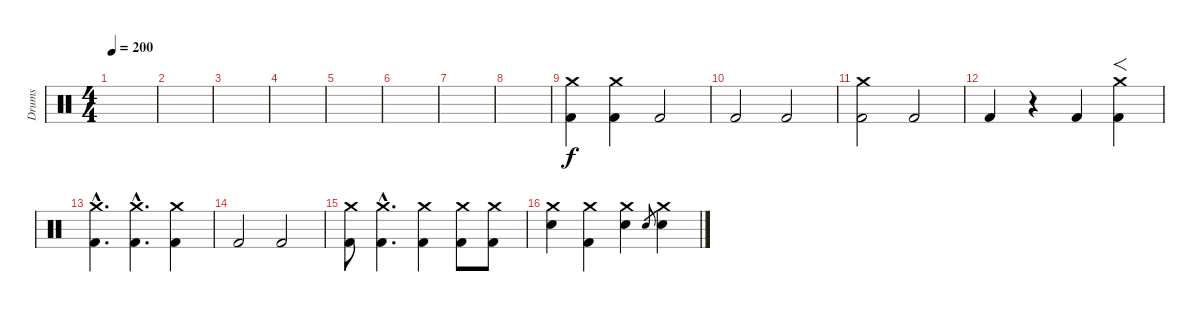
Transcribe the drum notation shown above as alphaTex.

\track ("Drums" "Drums") {instrument percussion}
\staff {score}
\articulation defaults
\ts (4 4)
\tempo 200
\clef neutral
\ks c
|
|
|
|
|
|
|
|
("Kick (hit) 2" "Crash medium (hit)").4 ("Kick (hit) 2" "Crash medium (hit)").4 "Kick (hit) 2".2 |
"Kick (hit) 2".2 "Kick (hit) 2".2 |
("Crash medium (hit)" "Kick (hit) 2").2 "Kick (hit) 2".2 |
"Kick (hit) 2".4 r.4 "Kick (hit) 2".4 ("Crash medium (hit)" "Kick (hit) 2").4{f} |
("Crash medium (hit)"{hac} "Kick (hit) 2"{hac}).4{d} ("Crash medium (hit)"{hac} "Kick (hit) 2"{hac}).4{d} ("Crash medium (hit)" "Kick (hit) 2").4 |
"Kick (hit) 2".2 "Kick (hit) 2".2 |
("Kick (hit) 2" "Crash medium (hit)").8 ("Kick (hit) 2"{hac} "Crash medium (hit)"{hac}).4{d} ("Kick (hit) 2" "Crash medium (hit)").4 ("Kick (hit) 2" "Crash medium (hit)").8 ("Kick (hit) 2" "Crash medium (hit)").8 |
("Crash medium (hit)" "Snare (hit) 2").4 ("Crash medium (hit)" "Kick (hit) 2").4 ("Crash medium (hit)" "Snare (hit) 2").4 "Snare (hit) 2".8{gr} ("Crash medium (hit)" "Snare (hit) 2").4
